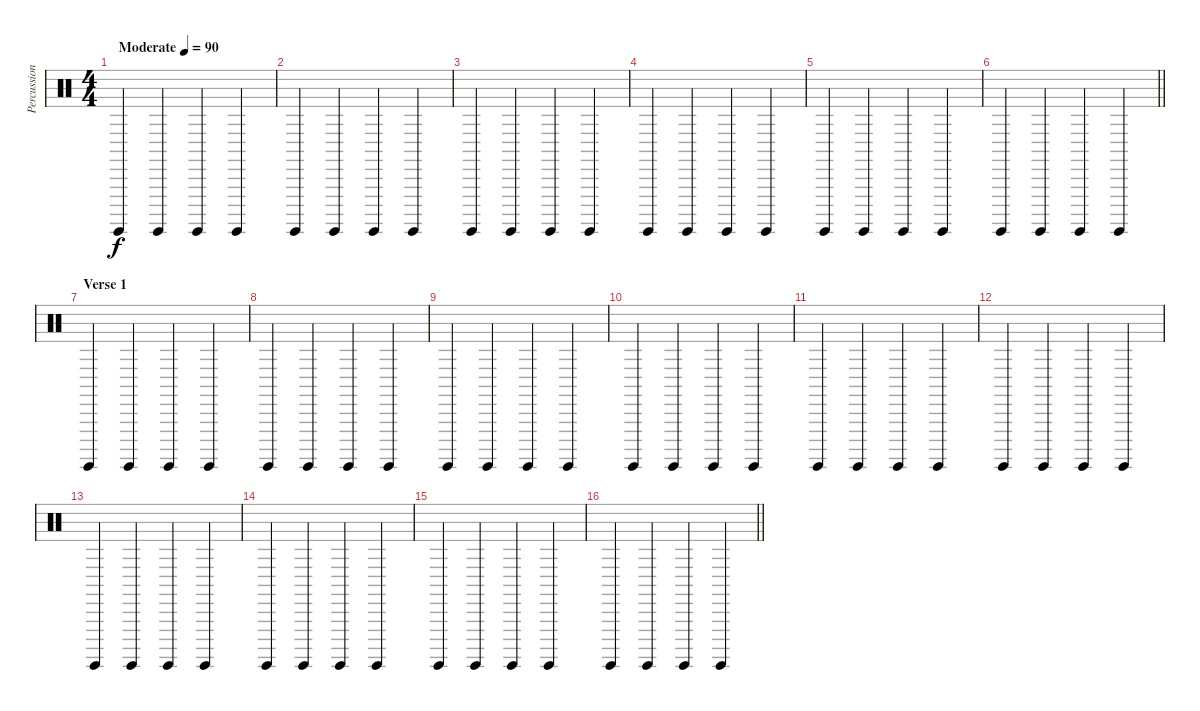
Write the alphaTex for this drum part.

\track ("Percussion" "Percussion") {instrument percussion}
\staff {score}
\articulation defaults
\ts (4 4)
\tempo (90 "Moderate")
\clef neutral
\ks c "Surdo (hit)".4{dy f} "Surdo (hit)".4 "Surdo (hit)".4 "Surdo (hit)".4
|
"Surdo (hit)".4 "Surdo (hit)".4 "Surdo (hit)".4 "Surdo (hit)".4 |
"Surdo (hit)".4 "Surdo (hit)".4 "Surdo (hit)".4 "Surdo (hit)".4 |
"Surdo (hit)".4 "Surdo (hit)".4 "Surdo (hit)".4 "Surdo (hit)".4 |
"Surdo (hit)".4 "Surdo (hit)".4 "Surdo (hit)".4 "Surdo (hit)".4 |
\barLineRight lightlight "Surdo (hit)".4 "Surdo (hit)".4 "Surdo (hit)".4 "Surdo (hit)".4
|
\section ("" "Verse 1")
"Surdo (hit)".4 "Surdo (hit)".4 "Surdo (hit)".4 "Surdo (hit)".4 |
"Surdo (hit)".4 "Surdo (hit)".4 "Surdo (hit)".4 "Surdo (hit)".4 |
"Surdo (hit)".4 "Surdo (hit)".4 "Surdo (hit)".4 "Surdo (hit)".4 |
"Surdo (hit)".4 "Surdo (hit)".4 "Surdo (hit)".4 "Surdo (hit)".4 |
"Surdo (hit)".4 "Surdo (hit)".4 "Surdo (hit)".4 "Surdo (hit)".4 |
"Surdo (hit)".4 "Surdo (hit)".4 "Surdo (hit)".4 "Surdo (hit)".4 |
"Surdo (hit)".4 "Surdo (hit)".4 "Surdo (hit)".4 "Surdo (hit)".4 |
"Surdo (hit)".4 "Surdo (hit)".4 "Surdo (hit)".4 "Surdo (hit)".4 |
"Surdo (hit)".4 "Surdo (hit)".4 "Surdo (hit)".4 "Surdo (hit)".4 |
\barLineRight lightlight "Surdo (hit)".4 "Surdo (hit)".4 "Surdo (hit)".4 "Surdo (hit)".4
